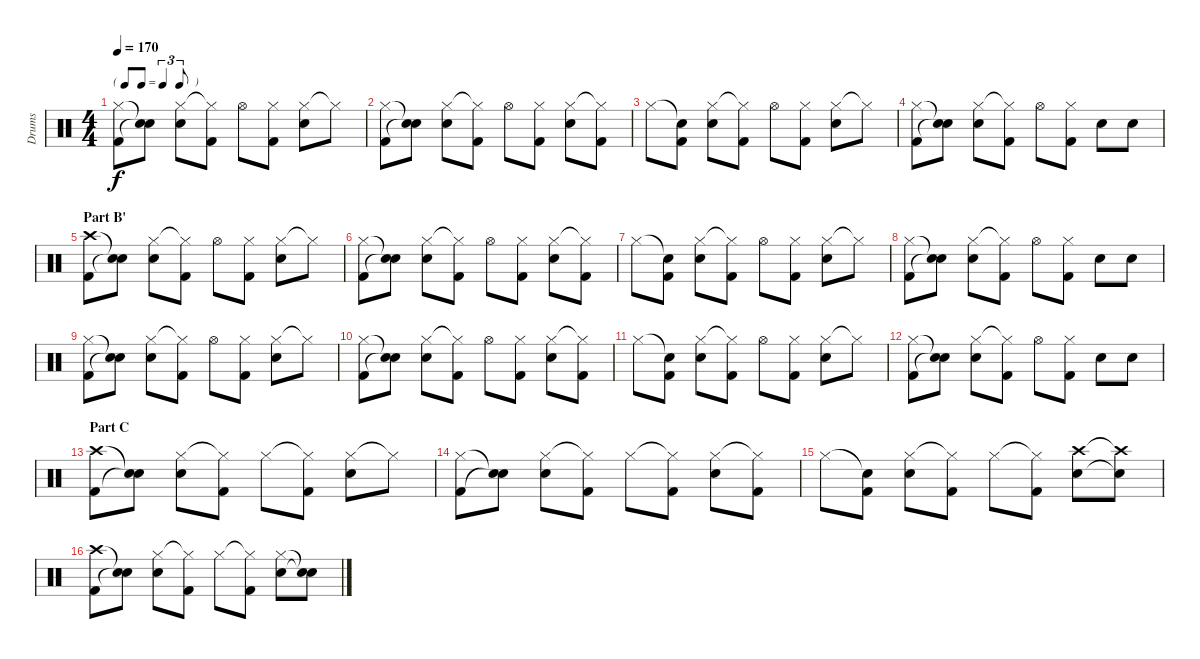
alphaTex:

\track ("Drums" "Drums") {instrument percussion}
\staff {score}
\articulation defaults
\ts (4 4)
\tf triplet8th
\tempo 170
\clef neutral
\ks c
("Hi-Hat (closed)" "Kick (hit) 2").8{dy f} ("Snare (hit)"{t} "Snare (hit)"{t}).8 ("Hi-Hat (closed)" "Electric Snare (hit)").8 ("Hi-Hat (closed)"{t} "Kick (hit) 2").8 "Hi-Hat (open)".8 ("Hi-Hat (closed)" "Kick (hit) 2").8 ("Hi-Hat (closed)" "Electric Snare (hit)").8 "Hi-Hat (closed)"{t}.8 |
("Hi-Hat (closed)" "Kick (hit) 2").8 ("Snare (hit)"{t} "Snare (hit)"{t}).8 ("Hi-Hat (closed)" "Electric Snare (hit)").8 ("Hi-Hat (closed)"{t} "Kick (hit) 2").8 "Hi-Hat (open)".8 ("Hi-Hat (closed)" "Kick (hit) 2").8 ("Hi-Hat (closed)" "Electric Snare (hit)").8 ("Hi-Hat (closed)"{t} "Kick (hit) 2").8 |
"Hi-Hat (closed)".8 ("Snare (hit)"{t} "Kick (hit) 2").8 ("Hi-Hat (closed)" "Electric Snare (hit)").8 ("Hi-Hat (closed)"{t} "Kick (hit) 2").8 "Hi-Hat (open)".8 ("Hi-Hat (closed)" "Kick (hit) 2").8 ("Hi-Hat (closed)" "Electric Snare (hit)").8 "Hi-Hat (closed)"{t}.8 |
("Hi-Hat (closed)" "Kick (hit) 2").8 ("Snare (hit)"{t} "Snare (hit)"{t}).8 ("Hi-Hat (closed)" "Electric Snare (hit)").8 ("Hi-Hat (closed)"{t} "Kick (hit) 2").8 "Hi-Hat (open)".8 ("Hi-Hat (closed)" "Kick (hit) 2").8 "Electric Snare (hit)".8 "Electric Snare (hit)".8 |
\section ("" "Part B'")
("Crash high (hit)" "Kick (hit) 2").8 ("Snare (hit)"{t} "Snare (hit)"{t}).8 ("Hi-Hat (closed)" "Electric Snare (hit)").8 ("Hi-Hat (closed)"{t} "Kick (hit) 2").8 "Hi-Hat (open)".8 ("Hi-Hat (closed)" "Kick (hit) 2").8 ("Hi-Hat (closed)" "Electric Snare (hit)").8 "Hi-Hat (closed)"{t}.8 |
("Hi-Hat (closed)" "Kick (hit) 2").8 ("Snare (hit)"{t} "Snare (hit)"{t}).8 ("Hi-Hat (closed)" "Electric Snare (hit)").8 ("Hi-Hat (closed)"{t} "Kick (hit) 2").8 "Hi-Hat (open)".8 ("Hi-Hat (closed)" "Kick (hit) 2").8 ("Hi-Hat (closed)" "Electric Snare (hit)").8 ("Hi-Hat (closed)"{t} "Kick (hit) 2").8 |
"Hi-Hat (closed)".8 ("Snare (hit)"{t} "Kick (hit) 2").8 ("Hi-Hat (closed)" "Electric Snare (hit)").8 ("Hi-Hat (closed)"{t} "Kick (hit) 2").8 "Hi-Hat (open)".8 ("Hi-Hat (closed)" "Kick (hit) 2").8 ("Hi-Hat (closed)" "Electric Snare (hit)").8 "Hi-Hat (closed)"{t}.8 |
("Hi-Hat (closed)" "Kick (hit) 2").8 ("Snare (hit)"{t} "Snare (hit)"{t}).8 ("Hi-Hat (closed)" "Electric Snare (hit)").8 ("Hi-Hat (closed)"{t} "Kick (hit) 2").8 "Hi-Hat (open)".8 ("Hi-Hat (closed)" "Kick (hit) 2").8 "Electric Snare (hit)".8 "Electric Snare (hit)".8 |
("Hi-Hat (closed)" "Kick (hit) 2").8 ("Snare (hit)"{t} "Snare (hit)"{t}).8 ("Hi-Hat (closed)" "Electric Snare (hit)").8 ("Hi-Hat (closed)"{t} "Kick (hit) 2").8 "Hi-Hat (open)".8 ("Hi-Hat (closed)" "Kick (hit) 2").8 ("Hi-Hat (closed)" "Electric Snare (hit)").8 "Hi-Hat (closed)"{t}.8 |
("Hi-Hat (closed)" "Kick (hit) 2").8 ("Snare (hit)"{t} "Snare (hit)"{t}).8 ("Hi-Hat (closed)" "Electric Snare (hit)").8 ("Hi-Hat (closed)"{t} "Kick (hit) 2").8 "Hi-Hat (open)".8 ("Hi-Hat (closed)" "Kick (hit) 2").8 ("Hi-Hat (closed)" "Electric Snare (hit)").8 ("Hi-Hat (closed)"{t} "Kick (hit) 2").8 |
"Hi-Hat (closed)".8 ("Snare (hit)"{t} "Kick (hit) 2").8 ("Hi-Hat (closed)" "Electric Snare (hit)").8 ("Hi-Hat (closed)"{t} "Kick (hit) 2").8 "Hi-Hat (open)".8 ("Hi-Hat (closed)" "Kick (hit) 2").8 ("Hi-Hat (closed)" "Electric Snare (hit)").8 "Hi-Hat (closed)"{t}.8 |
("Hi-Hat (closed)" "Kick (hit) 2").8 ("Snare (hit)"{t} "Snare (hit)"{t}).8 ("Hi-Hat (closed)" "Electric Snare (hit)").8 ("Hi-Hat (closed)"{t} "Kick (hit) 2").8 "Hi-Hat (open)".8 ("Hi-Hat (closed)" "Kick (hit) 2").8 "Electric Snare (hit)".8 "Electric Snare (hit)".8 |
\section ("" "Part C")
("Crash high (hit)" "Kick (hit) 2").8 ("Snare (hit)"{t} "Snare (hit)"{t}).8 ("Hi-Hat (closed)" "Electric Snare (hit)").8 ("Hi-Hat (closed)"{t} "Kick (hit) 2").8 "Hi-Hat (closed)".8 ("Hi-Hat (closed)"{t} "Kick (hit) 2").8 ("Hi-Hat (closed)" "Electric Snare (hit)").8 "Hi-Hat (closed)"{t}.8 |
("Hi-Hat (closed)" "Kick (hit) 2").8 ("Snare (hit)"{t} "Snare (hit)"{t}).8 ("Hi-Hat (closed)" "Electric Snare (hit)").8 ("Hi-Hat (closed)"{t} "Kick (hit) 2").8 "Hi-Hat (closed)".8 ("Hi-Hat (closed)"{t} "Kick (hit) 2").8 ("Hi-Hat (closed)" "Electric Snare (hit)").8 ("Hi-Hat (closed)"{t} "Kick (hit) 2").8 |
"Hi-Hat (closed)".8 ("Snare (hit)"{t} "Kick (hit) 2").8 ("Hi-Hat (closed)" "Electric Snare (hit)").8 ("Hi-Hat (closed)"{t} "Kick (hit) 2").8 "Hi-Hat (closed)".8 ("Hi-Hat (closed)"{t} "Kick (hit) 2").8 ("Crash high (hit)" "Electric Snare (hit)").8 ("Crash high (hit)"{t} "Snare (hit)"{t}).8 |
("Crash high (hit)" "Kick (hit) 2").8 ("Snare (hit)"{t} "Snare (hit)"{t}).8 ("Hi-Hat (closed)" "Electric Snare (hit)").8 ("Hi-Hat (closed)"{t} "Kick (hit) 2").8 "Hi-Hat (closed)".8 ("Hi-Hat (closed)"{t} "Kick (hit) 2").8 ("Hi-Hat (closed)" "Electric Snare (hit)").8 ("Snare (hit)"{t} "Electric Snare (hit)"{t}).8
